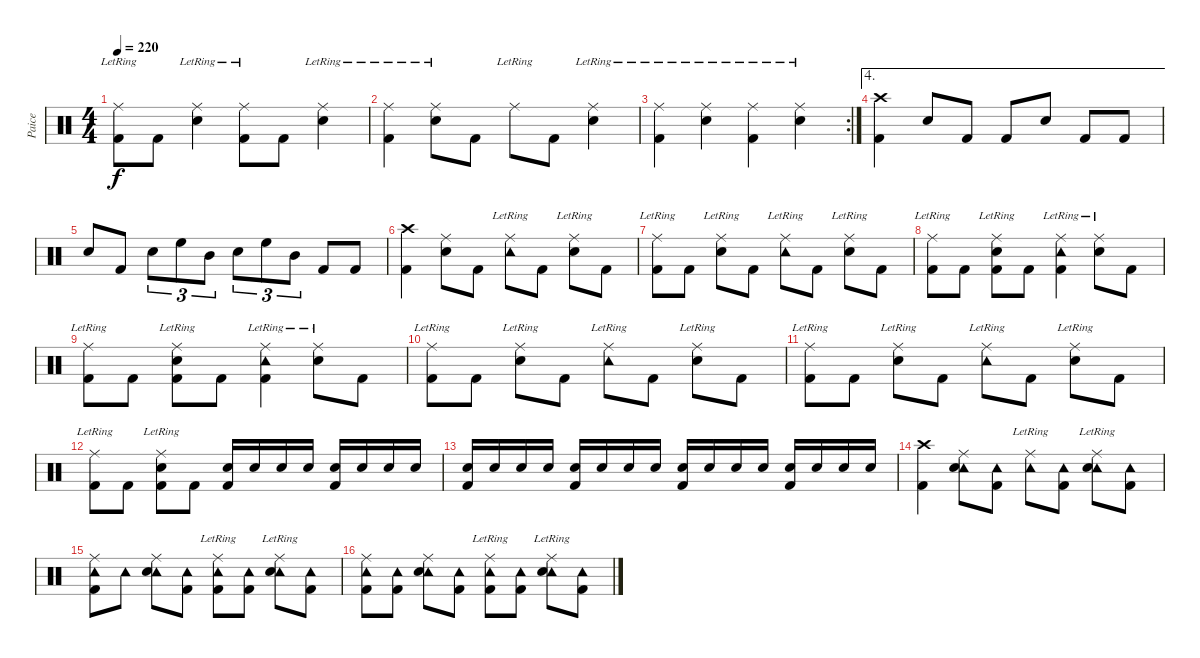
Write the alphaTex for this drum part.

\track ("Paice" "Paice") {instrument percussion}
\staff {score}
\articulation defaults
\ts (4 4)
\tempo 220
\clef neutral
\ks c
("Ride (middle)"{lr} "Kick (hit) 2").8{dy f} "Kick (hit) 2".8 ("Ride (middle)"{lr} "Snare (hit) 2").4 ("Ride (middle)"{lr} "Kick (hit) 2").8 "Kick (hit) 2".8 ("Ride (middle)"{lr} "Snare (hit) 2").4 |
("Ride (middle)"{lr} "Kick (hit) 2").4 ("Ride (middle)"{lr} "Snare (hit) 2").8 "Kick (hit) 2".8 "Ride (middle)"{lr}.8 "Kick (hit) 2".8 ("Ride (middle)"{lr} "Snare (hit) 2").4 |
\rc 2
("Ride (middle)"{lr} "Kick (hit) 2").4 ("Ride (middle)"{lr} "Snare (hit) 2").4 ("Ride (middle)"{lr} "Kick (hit) 2").4 ("Ride (middle)"{lr} "Snare (hit) 2").4 |
\ae 4
("Crash high (hit)" "Kick (hit) 2").4 "Snare (hit) 2".8 "Kick (hit) 2".8 "Kick (hit) 2".8 "Snare (hit) 2".8 "Kick (hit) 2".8 "Kick (hit) 2".8 |
"Snare (hit) 2".8 "Kick (hit) 2".8 "Snare (hit) 2".8{tu (3 2)} "High Floor Tom (hit)".8{tu (3 2)} "Mid Tom (hit)".8{tu (3 2)} "Snare (hit) 2".8{tu (3 2)} "High Floor Tom (hit)".8{tu (3 2)} "Mid Tom (hit)".8{tu (3 2)} "Kick (hit) 2".8 "Kick (hit) 2".8 |
("Crash high (hit)" "Kick (hit) 2").4 ("Ride (middle)" "Snare (hit) 2").8 "Kick (hit) 2".8 ("Ride (middle)" "Tambourine (hit)"{lr}).8 "Kick (hit) 2".8 ("Ride (middle)"{lr} "Snare (hit) 2").8 "Kick (hit) 2".8 |
("Ride (middle)"{lr} "Kick (hit) 2").8 "Kick (hit) 2".8 ("Ride (middle)"{lr} "Snare (hit) 2").8 "Kick (hit) 2".8 ("Ride (middle)"{lr} "Tambourine (hit)"{lr}).8 "Kick (hit) 2".8 ("Ride (middle)"{lr} "Snare (hit) 2").8 "Kick (hit) 2".8 |
("Ride (middle)"{lr} "Kick (hit) 2").8 "Kick (hit) 2".8 ("Ride (middle)"{lr} "Snare (hit) 2" "Kick (hit) 2").8 "Kick (hit) 2".8 ("Ride (middle)"{lr} "Tambourine (hit)"{lr} "Kick (hit) 2").4 ("Ride (middle)"{lr} "Snare (hit) 2").8 "Kick (hit) 2".8 |
("Ride (middle)"{lr} "Kick (hit) 2").8 "Kick (hit) 2".8 ("Ride (middle)"{lr} "Snare (hit) 2" "Kick (hit) 2").8 "Kick (hit) 2".8 ("Ride (middle)"{lr} "Tambourine (hit)"{lr} "Kick (hit) 2").4 ("Ride (middle)"{lr} "Snare (hit) 2").8 "Kick (hit) 2".8 |
("Ride (middle)"{lr} "Kick (hit) 2").8 "Kick (hit) 2".8 ("Ride (middle)"{lr} "Snare (hit) 2").8 "Kick (hit) 2".8 ("Ride (middle)"{lr} "Tambourine (hit)"{lr}).8 "Kick (hit) 2".8 ("Ride (middle)"{lr} "Snare (hit) 2").8 "Kick (hit) 2".8 |
("Ride (middle)"{lr} "Kick (hit) 2").8 "Kick (hit) 2".8 ("Ride (middle)"{lr} "Snare (hit) 2").8 "Kick (hit) 2".8 ("Ride (middle)"{lr} "Tambourine (hit)"{lr}).8 "Kick (hit) 2".8 ("Ride (middle)"{lr} "Snare (hit) 2").8 "Kick (hit) 2".8 |
("Ride (middle)"{lr} "Kick (hit) 2").8 "Kick (hit) 2".8 ("Ride (middle)"{lr} "Snare (hit) 2" "Kick (hit) 2").8 "Kick (hit) 2".8 ("Snare (hit) 2" "Kick (hit) 2").16 "Snare (hit) 2".16 "Snare (hit) 2".16 "Snare (hit) 2".16 ("Snare (hit) 2" "Kick (hit) 2").16 "Snare (hit) 2".16 "Snare (hit) 2".16 "Snare (hit) 2".16 |
("Snare (hit) 2" "Kick (hit) 2").16 "Snare (hit) 2".16 "Snare (hit) 2".16 "Snare (hit) 2".16 ("Snare (hit) 2" "Kick (hit) 2").16 "Snare (hit) 2".16 "Snare (hit) 2".16 "Snare (hit) 2".16 ("Snare (hit) 2" "Kick (hit) 2").16 "Snare (hit) 2".16 "Snare (hit) 2".16 "Snare (hit) 2".16 ("Snare (hit) 2" "Kick (hit) 2").16 "Snare (hit) 2".16 "Snare (hit) 2".16 "Snare (hit) 2".16 |
("Crash high (hit)" "Kick (hit) 2").4 ("Ride (middle)" "Tambourine (hit)" "Snare (hit) 2").8 ("Tambourine (hit)" "Kick (hit) 2").8 ("Ride (middle)" "Tambourine (hit)"{lr}).8 ("Tambourine (hit)" "Kick (hit) 2").8 ("Ride (middle)"{lr} "Tambourine (hit)" "Snare (hit) 2").8 ("Tambourine (hit)" "Kick (hit) 2").8 |
("Ride (middle)" "Tambourine (hit)" "Kick (hit) 2").8 "Tambourine (hit)".8 ("Ride (middle)" "Tambourine (hit)" "Snare (hit) 2").8 ("Tambourine (hit)" "Kick (hit) 2").8 ("Ride (middle)"{lr} "Tambourine (hit)" "Kick (hit) 2").8 ("Tambourine (hit)" "Kick (hit) 2").8 ("Ride (middle)"{lr} "Tambourine (hit)" "Snare (hit) 2").8 ("Tambourine (hit)" "Kick (hit) 2").8 |
("Ride (middle)" "Tambourine (hit)" "Kick (hit) 2").8 ("Tambourine (hit)" "Kick (hit) 2").8 ("Ride (middle)" "Tambourine (hit)" "Snare (hit) 2").8 ("Tambourine (hit)" "Kick (hit) 2").8 ("Ride (middle)"{lr} "Tambourine (hit)" "Kick (hit) 2").8 ("Tambourine (hit)" "Kick (hit) 2").8 ("Ride (middle)"{lr} "Tambourine (hit)" "Snare (hit) 2").8 ("Tambourine (hit)" "Kick (hit) 2").8
